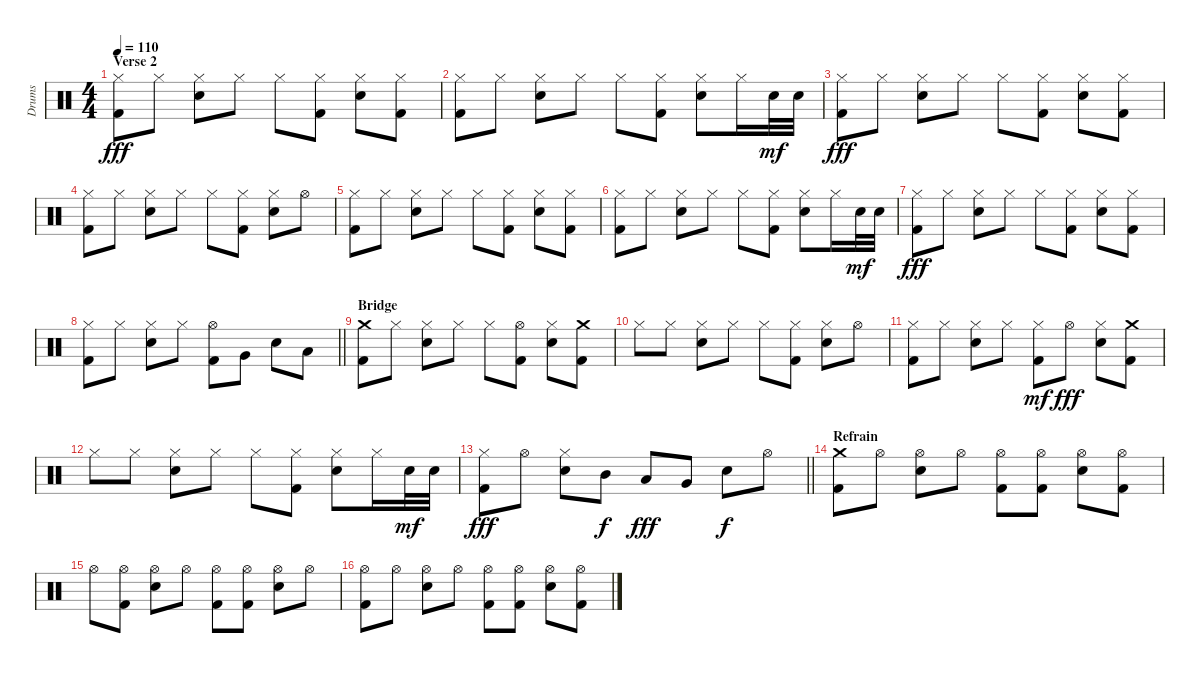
\track ("Drums" "Drums") {instrument percussion}
\staff {score}
\articulation defaults
\ts (4 4)
\section ("" "Verse 2")
\tempo 110
\clef neutral
\ks c
("Hi-Hat (closed)" "Kick (hit) 2").8{dy fff} "Hi-Hat (closed)".8 ("Hi-Hat (closed)" "Electric Snare (hit)").8 "Hi-Hat (closed)".8 "Hi-Hat (closed)".8 ("Hi-Hat (closed)" "Kick (hit) 2").8 ("Hi-Hat (closed)" "Electric Snare (hit)").8 ("Hi-Hat (closed)" "Kick (hit) 2").8 |
("Hi-Hat (closed)" "Kick (hit) 2").8 "Hi-Hat (closed)".8 ("Hi-Hat (closed)" "Electric Snare (hit)").8 "Hi-Hat (closed)".8 "Hi-Hat (closed)".8 ("Hi-Hat (closed)" "Kick (hit) 2").8 ("Hi-Hat (closed)" "Electric Snare (hit)").8 "Hi-Hat (closed)".16 "Electric Snare (hit)".32{dy mf} "Electric Snare (hit)".32 |
("Hi-Hat (closed)" "Kick (hit) 2").8{dy fff} "Hi-Hat (closed)".8 ("Hi-Hat (closed)" "Electric Snare (hit)").8 "Hi-Hat (closed)".8 "Hi-Hat (closed)".8 ("Hi-Hat (closed)" "Kick (hit) 2").8 ("Hi-Hat (closed)" "Electric Snare (hit)").8 ("Hi-Hat (closed)" "Kick (hit) 2").8 |
("Hi-Hat (closed)" "Kick (hit) 2").8 "Hi-Hat (closed)".8 ("Hi-Hat (closed)" "Electric Snare (hit)").8 "Hi-Hat (closed)".8 "Hi-Hat (closed)".8 ("Hi-Hat (closed)" "Kick (hit) 2").8 ("Hi-Hat (closed)" "Electric Snare (hit)").8 "Hi-Hat (open)".8 |
("Hi-Hat (closed)" "Kick (hit) 2").8 "Hi-Hat (closed)".8 ("Hi-Hat (closed)" "Electric Snare (hit)").8 "Hi-Hat (closed)".8 "Hi-Hat (closed)".8 ("Hi-Hat (closed)" "Kick (hit) 2").8 ("Hi-Hat (closed)" "Electric Snare (hit)").8 ("Hi-Hat (closed)" "Kick (hit) 2").8 |
("Hi-Hat (closed)" "Kick (hit) 2").8 "Hi-Hat (closed)".8 ("Hi-Hat (closed)" "Electric Snare (hit)").8 "Hi-Hat (closed)".8 "Hi-Hat (closed)".8 ("Hi-Hat (closed)" "Kick (hit) 2").8 ("Hi-Hat (closed)" "Electric Snare (hit)").8 "Hi-Hat (closed)".16 "Electric Snare (hit)".32{dy mf} "Electric Snare (hit)".32 |
("Hi-Hat (closed)" "Kick (hit) 2").8{dy fff} "Hi-Hat (closed)".8 ("Hi-Hat (closed)" "Electric Snare (hit)").8 "Hi-Hat (closed)".8 "Hi-Hat (closed)".8 ("Hi-Hat (closed)" "Kick (hit) 2").8 ("Hi-Hat (closed)" "Electric Snare (hit)").8 ("Hi-Hat (closed)" "Kick (hit) 2").8 |
\barLineRight lightlight
("Hi-Hat (closed)" "Kick (hit) 2").8 "Hi-Hat (closed)".8 ("Hi-Hat (closed)" "Electric Snare (hit)").8 "Hi-Hat (closed)".8 ("Hi-Hat (open)" "Kick (hit) 2").8 "Very Low Tom (hit)".8 "Electric Snare (hit)".8 "Low Tom (hit)".8 |
\section ("" "Bridge")
("Crash medium (hit)" "Kick (hit) 2").8 "Hi-Hat (closed)".8 ("Hi-Hat (closed)" "Electric Snare (hit)").8 "Hi-Hat (closed)".8 "Hi-Hat (closed)".8 ("Hi-Hat (open)" "Kick (hit) 2").8 ("Hi-Hat (closed)" "Electric Snare (hit)").8 ("Crash medium (hit)" "Kick (hit) 2").8 |
"Hi-Hat (closed)".8 "Hi-Hat (closed)".8 ("Hi-Hat (closed)" "Electric Snare (hit)").8 "Hi-Hat (closed)".8 "Hi-Hat (closed)".8 ("Hi-Hat (closed)" "Kick (hit) 2").8 ("Hi-Hat (closed)" "Electric Snare (hit)").8 "Hi-Hat (open)".8 |
("Hi-Hat (closed)" "Kick (hit) 2").8 "Hi-Hat (closed)".8 ("Hi-Hat (closed)" "Electric Snare (hit)").8 "Hi-Hat (closed)".8 ("Hi-Hat (closed)" "Kick (hit) 2").8{dy mf} "Hi-Hat (open)".8{dy fff} ("Hi-Hat (closed)" "Electric Snare (hit)").8 ("Crash medium (hit)" "Kick (hit) 2").8 |
"Hi-Hat (closed)".8 "Hi-Hat (closed)".8 ("Hi-Hat (closed)" "Electric Snare (hit)").8 "Hi-Hat (closed)".8 "Hi-Hat (closed)".8 ("Hi-Hat (closed)" "Kick (hit) 2").8 ("Hi-Hat (closed)" "Electric Snare (hit)").8 "Hi-Hat (closed)".16 "Electric Snare (hit)".32{dy mf} "Electric Snare (hit)".32 |
\barLineRight lightlight
("Hi-Hat (closed)" "Kick (hit) 2").8{dy fff} "Hi-Hat (open)".8 ("Hi-Hat (closed)" "Electric Snare (hit)").8 "Mid Tom (hit)".8{dy f} "Low Tom (hit)".8{dy fff} "Very Low Tom (hit)".8 "Electric Snare (hit)".8{dy f} "Hi-Hat (open)".8 |
\section ("" "Refrain")
("Crash medium (hit)" "Kick (hit) 2").8 "Hi-Hat (open)".8 ("Hi-Hat (open)" "Electric Snare (hit)").8 "Hi-Hat (open)".8 ("Hi-Hat (open)" "Kick (hit) 2").8 ("Hi-Hat (open)" "Kick (hit) 2").8 ("Hi-Hat (open)" "Electric Snare (hit)").8 ("Hi-Hat (open)" "Kick (hit) 2").8 |
"Hi-Hat (open)".8 ("Hi-Hat (open)" "Kick (hit) 2").8 ("Hi-Hat (open)" "Electric Snare (hit)").8 "Hi-Hat (open)".8 ("Hi-Hat (open)" "Kick (hit) 2").8 ("Hi-Hat (open)" "Kick (hit) 2").8 ("Hi-Hat (open)" "Electric Snare (hit)").8 "Hi-Hat (open)".8 |
("Hi-Hat (open)" "Kick (hit) 2").8 "Hi-Hat (open)".8 ("Hi-Hat (open)" "Electric Snare (hit)").8 "Hi-Hat (open)".8 ("Hi-Hat (open)" "Kick (hit) 2").8 ("Hi-Hat (open)" "Kick (hit) 2").8 ("Hi-Hat (open)" "Electric Snare (hit)").8 ("Hi-Hat (open)" "Kick (hit) 2").8
